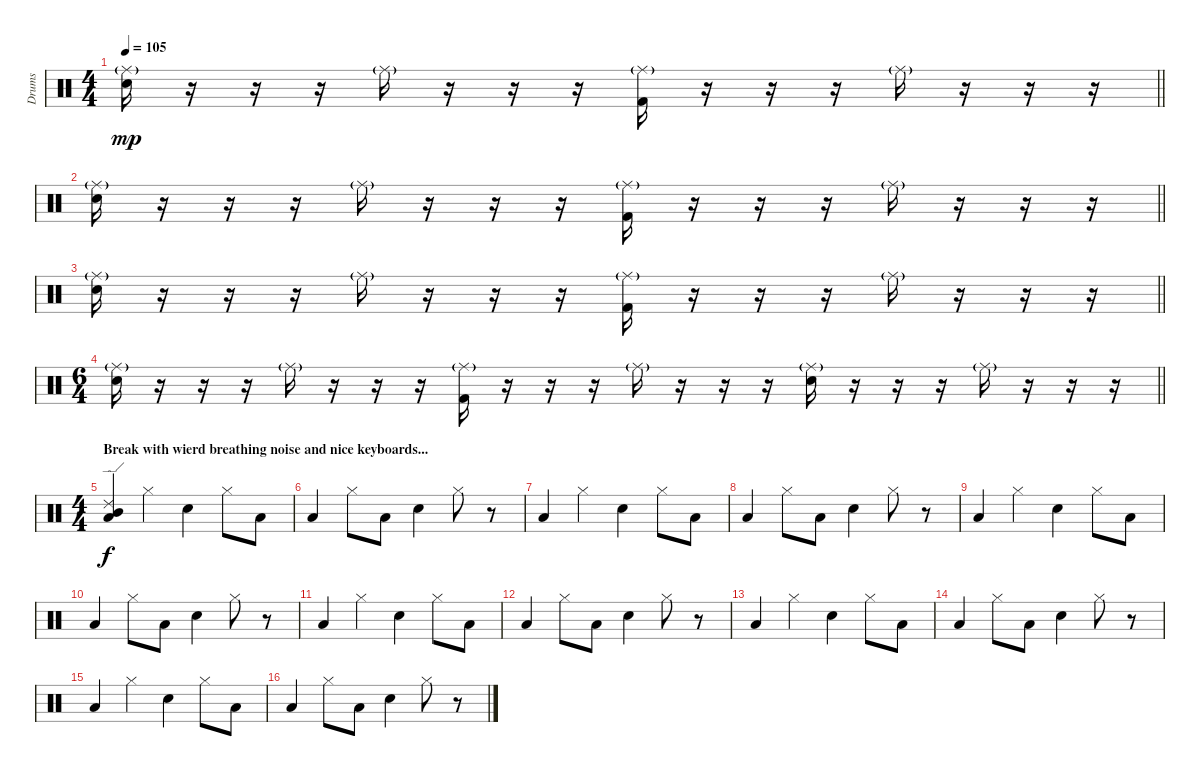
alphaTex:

\track ("Drums" "Drums") {instrument percussion}
\staff {score}
\articulation defaults
\ts (4 4)
\tempo 105
\clef neutral
\barLineRight lightlight
\ks c
("Ride (middle)"{g} "Electric Snare (hit)").16{dy mp} r.16 r.16 r.16 "Ride (middle)"{g}.16 r.16 r.16 r.16 ("Ride (middle)"{g} "Kick (hit) 2").16 r.16 r.16 r.16 "Ride (middle)"{g}.16 r.16 r.16 r.16 |
\barLineRight lightlight
("Ride (middle)"{g} "Electric Snare (hit)").16 r.16 r.16 r.16 "Ride (middle)"{g}.16 r.16 r.16 r.16 ("Ride (middle)"{g} "Kick (hit) 2").16 r.16 r.16 r.16 "Ride (middle)"{g}.16 r.16 r.16 r.16 |
\barLineRight lightlight
("Ride (middle)"{g} "Electric Snare (hit)").16 r.16 r.16 r.16 "Ride (middle)"{g}.16 r.16 r.16 r.16 ("Ride (middle)"{g} "Kick (hit) 2").16 r.16 r.16 r.16 "Ride (middle)"{g}.16 r.16 r.16 r.16 |
\ts (6 4)
\barLineRight lightlight
("Ride (middle)"{g} "Electric Snare (hit)").16 r.16 r.16 r.16 "Ride (middle)"{g}.16 r.16 r.16 r.16 ("Ride (middle)"{g} "Kick (hit) 2").16 r.16 r.16 r.16 "Ride (middle)"{g}.16 r.16 r.16 r.16 ("Ride (middle)"{g} "Electric Snare (hit)").16 r.16 r.16 r.16 "Ride (middle)"{g}.16 r.16 r.16 r.16 |
\ts (4 4)
\section ("" "Break with wierd breathing noise and nice keyboards...")
("Mid Tom (hit)" "Ride (edge) 2" "Low Tom (hit)").4{dy f volume 6} "Hi-Hat (closed)".4 "Snare (hit) 2".4 "Hi-Hat (closed)".8 "Low Tom (hit)".8 |
"Low Tom (hit)".4 "Hi-Hat (closed)".8 "Low Tom (hit)".8 "Snare (hit) 2".4 "Hi-Hat (closed)".8 r.8 |
"Low Tom (hit)".4 "Hi-Hat (closed)".4 "Snare (hit) 2".4 "Hi-Hat (closed)".8 "Low Tom (hit)".8 |
"Low Tom (hit)".4 "Hi-Hat (closed)".8 "Low Tom (hit)".8 "Snare (hit) 2".4 "Hi-Hat (closed)".8 r.8 |
"Low Tom (hit)".4 "Hi-Hat (closed)".4 "Snare (hit) 2".4 "Hi-Hat (closed)".8 "Low Tom (hit)".8 |
"Low Tom (hit)".4 "Hi-Hat (closed)".8 "Low Tom (hit)".8 "Snare (hit) 2".4 "Hi-Hat (closed)".8 r.8 |
"Low Tom (hit)".4 "Hi-Hat (closed)".4 "Snare (hit) 2".4 "Hi-Hat (closed)".8 "Low Tom (hit)".8 |
"Low Tom (hit)".4 "Hi-Hat (closed)".8 "Low Tom (hit)".8 "Snare (hit) 2".4 "Hi-Hat (closed)".8 r.8 |
"Low Tom (hit)".4 "Hi-Hat (closed)".4 "Snare (hit) 2".4 "Hi-Hat (closed)".8 "Low Tom (hit)".8 |
"Low Tom (hit)".4 "Hi-Hat (closed)".8 "Low Tom (hit)".8 "Snare (hit) 2".4 "Hi-Hat (closed)".8 r.8 |
"Low Tom (hit)".4 "Hi-Hat (closed)".4 "Snare (hit) 2".4 "Hi-Hat (closed)".8 "Low Tom (hit)".8 |
"Low Tom (hit)".4 "Hi-Hat (closed)".8 "Low Tom (hit)".8 "Snare (hit) 2".4 "Hi-Hat (closed)".8 r.8
